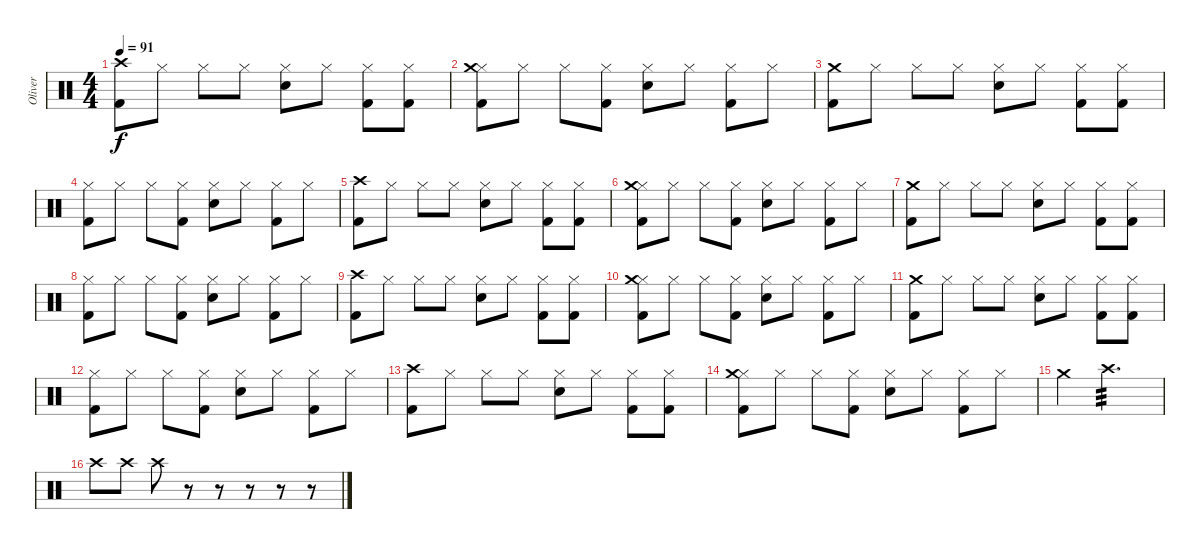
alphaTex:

\track ("Oliver" "Oliver") {instrument percussion}
\staff {score}
\articulation defaults
\ts (4 4)
\tempo 91
\clef neutral
\ks c
("Kick (hit) 2" "Crash high (hit)").8{dy f} "Hi-Hat (closed)".8 "Hi-Hat (closed)".8 "Hi-Hat (closed)".8 ("Hi-Hat (closed)" "Snare (hit) 2").8 "Hi-Hat (closed)".8 ("Hi-Hat (closed)" "Kick (hit) 2").8 ("Hi-Hat (closed)" "Kick (hit) 2").8 |
("Hi-Hat (closed)" "Kick (hit) 2" "Crash medium (hit)").8 "Hi-Hat (closed)".8 "Hi-Hat (closed)".8 ("Hi-Hat (closed)" "Kick (hit) 2").8 ("Hi-Hat (closed)" "Snare (hit) 2").8 "Hi-Hat (closed)".8 ("Hi-Hat (closed)" "Kick (hit) 2").8 "Hi-Hat (closed)".8 |
("Kick (hit) 2" "Crash medium (hit)").8 "Hi-Hat (closed)".8 "Hi-Hat (closed)".8 "Hi-Hat (closed)".8 ("Hi-Hat (closed)" "Snare (hit) 2").8 "Hi-Hat (closed)".8 ("Hi-Hat (closed)" "Kick (hit) 2").8 ("Hi-Hat (closed)" "Kick (hit) 2").8 |
("Hi-Hat (closed)" "Kick (hit) 2").8 "Hi-Hat (closed)".8 "Hi-Hat (closed)".8 ("Hi-Hat (closed)" "Kick (hit) 2").8 ("Hi-Hat (closed)" "Snare (hit) 2").8 "Hi-Hat (closed)".8 ("Hi-Hat (closed)" "Kick (hit) 2").8 "Hi-Hat (closed)".8 |
("Kick (hit) 2" "Crash high (hit)").8 "Hi-Hat (closed)".8 "Hi-Hat (closed)".8 "Hi-Hat (closed)".8 ("Hi-Hat (closed)" "Snare (hit) 2").8 "Hi-Hat (closed)".8 ("Hi-Hat (closed)" "Kick (hit) 2").8 ("Hi-Hat (closed)" "Kick (hit) 2").8 |
("Hi-Hat (closed)" "Kick (hit) 2" "Crash medium (hit)").8 "Hi-Hat (closed)".8 "Hi-Hat (closed)".8 ("Hi-Hat (closed)" "Kick (hit) 2").8 ("Hi-Hat (closed)" "Snare (hit) 2").8 "Hi-Hat (closed)".8 ("Hi-Hat (closed)" "Kick (hit) 2").8 "Hi-Hat (closed)".8 |
("Kick (hit) 2" "Crash medium (hit)").8 "Hi-Hat (closed)".8 "Hi-Hat (closed)".8 "Hi-Hat (closed)".8 ("Hi-Hat (closed)" "Snare (hit) 2").8 "Hi-Hat (closed)".8 ("Hi-Hat (closed)" "Kick (hit) 2").8 ("Hi-Hat (closed)" "Kick (hit) 2").8 |
("Hi-Hat (closed)" "Kick (hit) 2").8 "Hi-Hat (closed)".8 "Hi-Hat (closed)".8 ("Hi-Hat (closed)" "Kick (hit) 2").8 ("Hi-Hat (closed)" "Snare (hit) 2").8 "Hi-Hat (closed)".8 ("Hi-Hat (closed)" "Kick (hit) 2").8 "Hi-Hat (closed)".8 |
("Kick (hit) 2" "Crash high (hit)").8 "Hi-Hat (closed)".8 "Hi-Hat (closed)".8 "Hi-Hat (closed)".8 ("Hi-Hat (closed)" "Snare (hit) 2").8 "Hi-Hat (closed)".8 ("Hi-Hat (closed)" "Kick (hit) 2").8 ("Hi-Hat (closed)" "Kick (hit) 2").8 |
("Hi-Hat (closed)" "Kick (hit) 2" "Crash medium (hit)").8 "Hi-Hat (closed)".8 "Hi-Hat (closed)".8 ("Hi-Hat (closed)" "Kick (hit) 2").8 ("Hi-Hat (closed)" "Snare (hit) 2").8 "Hi-Hat (closed)".8 ("Hi-Hat (closed)" "Kick (hit) 2").8 "Hi-Hat (closed)".8 |
("Kick (hit) 2" "Crash medium (hit)").8 "Hi-Hat (closed)".8 "Hi-Hat (closed)".8 "Hi-Hat (closed)".8 ("Hi-Hat (closed)" "Snare (hit) 2").8 "Hi-Hat (closed)".8 ("Hi-Hat (closed)" "Kick (hit) 2").8 ("Hi-Hat (closed)" "Kick (hit) 2").8 |
("Hi-Hat (closed)" "Kick (hit) 2").8 "Hi-Hat (closed)".8 "Hi-Hat (closed)".8 ("Hi-Hat (closed)" "Kick (hit) 2").8 ("Hi-Hat (closed)" "Snare (hit) 2").8 "Hi-Hat (closed)".8 ("Hi-Hat (closed)" "Kick (hit) 2").8 "Hi-Hat (closed)".8 |
("Kick (hit) 2" "Crash high (hit)").8 "Hi-Hat (closed)".8 "Hi-Hat (closed)".8 "Hi-Hat (closed)".8 ("Hi-Hat (closed)" "Snare (hit) 2").8 "Hi-Hat (closed)".8 ("Hi-Hat (closed)" "Kick (hit) 2").8 ("Hi-Hat (closed)" "Kick (hit) 2").8 |
("Hi-Hat (closed)" "Kick (hit) 2" "Crash medium (hit)").8 "Hi-Hat (closed)".8 "Hi-Hat (closed)".8 ("Hi-Hat (closed)" "Kick (hit) 2").8 ("Hi-Hat (closed)" "Snare (hit) 2").8 "Hi-Hat (closed)".8 ("Hi-Hat (closed)" "Kick (hit) 2").8 "Hi-Hat (closed)".8 |
"Crash medium (hit)".4 "Crash high (hit)".2{d tp 3} |
"Crash high (hit)".8 "Crash high (hit)".8 "Crash high (hit)".8 r.8 r.8 r.8 r.8 r.8
